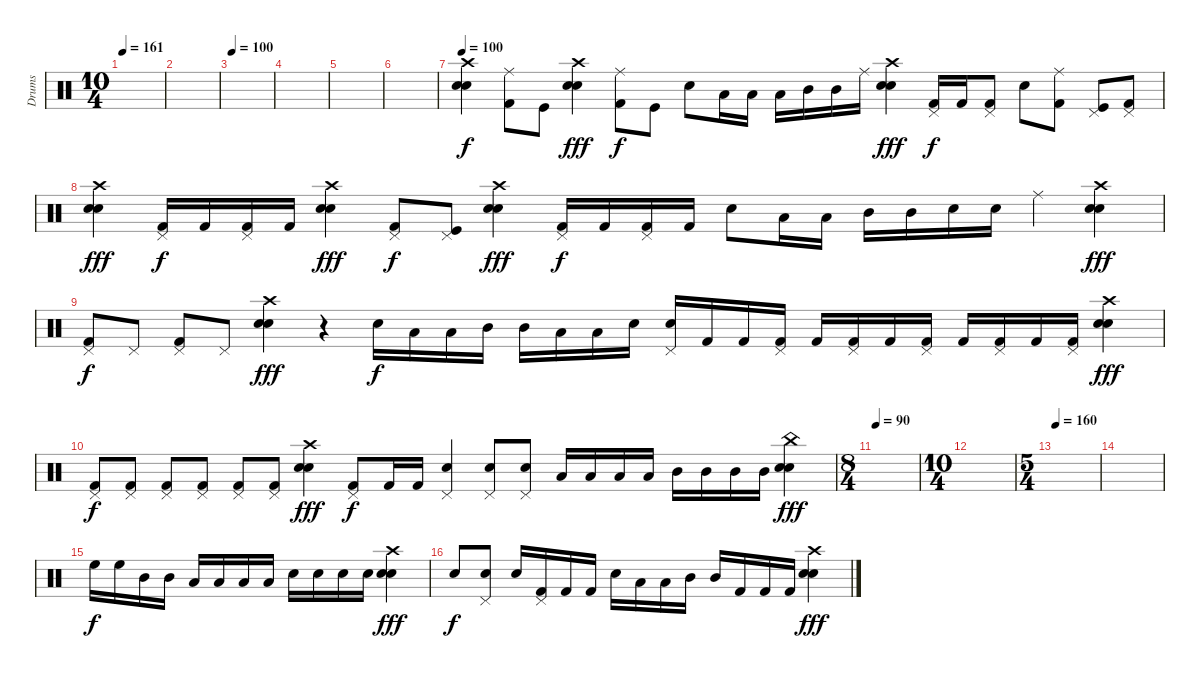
\track ("Drums" "Drums") {instrument percussion}
\staff {score}
\articulation defaults
\ts (10 4)
\tempo 161
\clef neutral
\ks c
|
|
\tempo 100
|
|
|
|
\tempo 100
("Electric Snare (hit)" "Electric Snare (hit)" "Crash high (hit)").4 ("Ride (middle)" "Kick (hit) 2").8{dy f} "Kick (hit)".8 ("Electric Snare (hit)" "Electric Snare (hit)" "Crash high (hit)").4{dy fff} ("Ride (middle)" "Kick (hit) 2").8{dy f} "Kick (hit)".8 "Electric Snare (hit)".8 "Low Tom (hit)".16 "Low Tom (hit)".16 "Low Tom (hit)".16 "Mid Tom (hit)".16 "Mid Tom (hit)".16 "Ride (middle)".16 ("Electric Snare (hit)" "Electric Snare (hit)" "Crash high (hit)").4{dy fff} ("Pedal Hi-Hat (hit)" "Kick (hit) 2").16{dy f} "Kick (hit) 2".16 ("Pedal Hi-Hat (hit)" "Kick (hit) 2").8 "Electric Snare (hit)".8 ("Ride (middle)" "Kick (hit) 2").8 ("Pedal Hi-Hat (hit)" "Kick (hit)").8 ("Pedal Hi-Hat (hit)" "Kick (hit) 2").8 |
("Electric Snare (hit)" "Electric Snare (hit)" "Crash high (hit)").4{dy fff} ("Pedal Hi-Hat (hit)" "Kick (hit) 2").16{dy f} "Kick (hit) 2".16 ("Pedal Hi-Hat (hit)" "Kick (hit) 2").16 "Kick (hit) 2".16 ("Electric Snare (hit)" "Electric Snare (hit)" "Crash high (hit)").4{dy fff} ("Pedal Hi-Hat (hit)" "Kick (hit) 2").8{dy f} ("Pedal Hi-Hat (hit)" "Kick (hit)").8 ("Electric Snare (hit)" "Electric Snare (hit)" "Crash high (hit)").4{dy fff} ("Pedal Hi-Hat (hit)" "Kick (hit) 2").16{dy f} "Kick (hit) 2".16 ("Pedal Hi-Hat (hit)" "Kick (hit) 2").16 "Kick (hit) 2".16 "Electric Snare (hit)".8 "Low Tom (hit)".16 "Low Tom (hit)".16 "Mid Tom (hit)".16 "Mid Tom (hit)".16 "Electric Snare (hit)".16 "Electric Snare (hit)".16 "Ride (middle)".4 ("Electric Snare (hit)" "Electric Snare (hit)" "Crash high (hit)").4{dy fff} |
("Pedal Hi-Hat (hit)" "Kick (hit) 2").8{dy f} "Pedal Hi-Hat (hit)".8 ("Pedal Hi-Hat (hit)" "Kick (hit) 2").8 "Pedal Hi-Hat (hit)".8 ("Electric Snare (hit)" "Electric Snare (hit)" "Crash high (hit)").4{dy fff} r.4 "Electric Snare (hit)".16{dy f} "Low Tom (hit)".16 "Low Tom (hit)".16 "Mid Tom (hit)".16 "Mid Tom (hit)".16 "Low Tom (hit)".16 "Low Tom (hit)".16 "Electric Snare (hit)".16 ("Electric Snare (hit)" "Pedal Hi-Hat (hit)").16 "Kick (hit) 2".16 "Kick (hit) 2".16 ("Pedal Hi-Hat (hit)" "Kick (hit) 2").16 "Kick (hit) 2".16 ("Pedal Hi-Hat (hit)" "Kick (hit) 2").16 "Kick (hit) 2".16 ("Pedal Hi-Hat (hit)" "Kick (hit) 2").16 "Kick (hit) 2".16 ("Pedal Hi-Hat (hit)" "Kick (hit) 2").16 "Kick (hit) 2".16 ("Pedal Hi-Hat (hit)" "Kick (hit) 2").16 ("Electric Snare (hit)" "Electric Snare (hit)" "Crash high (hit)").4{dy fff} |
("Pedal Hi-Hat (hit)" "Kick (hit) 2").8{dy f} ("Pedal Hi-Hat (hit)" "Kick (hit) 2").8 ("Pedal Hi-Hat (hit)" "Kick (hit) 2").8 ("Pedal Hi-Hat (hit)" "Kick (hit) 2").8 ("Pedal Hi-Hat (hit)" "Kick (hit) 2").8 ("Pedal Hi-Hat (hit)" "Kick (hit) 2").8 ("Electric Snare (hit)" "Electric Snare (hit)" "Crash high (hit)").4{dy fff} ("Pedal Hi-Hat (hit)" "Kick (hit) 2").8{dy f} "Kick (hit) 2".16 "Kick (hit) 2".16 ("Electric Snare (hit)" "Pedal Hi-Hat (hit)").4 ("Electric Snare (hit)" "Pedal Hi-Hat (hit)").8 ("Electric Snare (hit)" "Pedal Hi-Hat (hit)").8 "Low Tom (hit)".16 "Low Tom (hit)".16 "Low Tom (hit)".16 "Low Tom (hit)".16 "Mid Tom (hit)".16 "Mid Tom (hit)".16 "Mid Tom (hit)".16 "Mid Tom (hit)".16 ("Electric Snare (hit)" "Electric Snare (hit)" "China (hit)").4{dy fff} |
\ts (8 4)
\tempo 90
|
\ts (10 4)
|
\ts (5 4)
\tempo 160
|
|
"High Floor Tom (hit)".16{dy f} "High Floor Tom (hit)".16 "Mid Tom (hit)".16 "Mid Tom (hit)".16 "Low Tom (hit)".16 "Low Tom (hit)".16 "Low Tom (hit)".16 "Low Tom (hit)".16 "Electric Snare (hit)".16 "Electric Snare (hit)".16 "Electric Snare (hit)".16 "Electric Snare (hit)".16 ("Electric Snare (hit)" "Electric Snare (hit)" "Crash high (hit)").4{dy fff} |
"Electric Snare (hit)".8{dy f} ("Pedal Hi-Hat (hit)" "Electric Snare (hit)").8 "Electric Snare (hit)".16 ("Pedal Hi-Hat (hit)" "Kick (hit) 2").16 "Kick (hit) 2".16 "Kick (hit) 2".16 "Electric Snare (hit)".16 "Low Tom (hit)".16 "Low Tom (hit)".16 "Mid Tom (hit)".16 "Mid Tom (hit)".16 "Kick (hit) 2".16 "Kick (hit) 2".16 "Kick (hit) 2".16 ("Electric Snare (hit)" "Electric Snare (hit)" "Crash high (hit)").4{dy fff}
